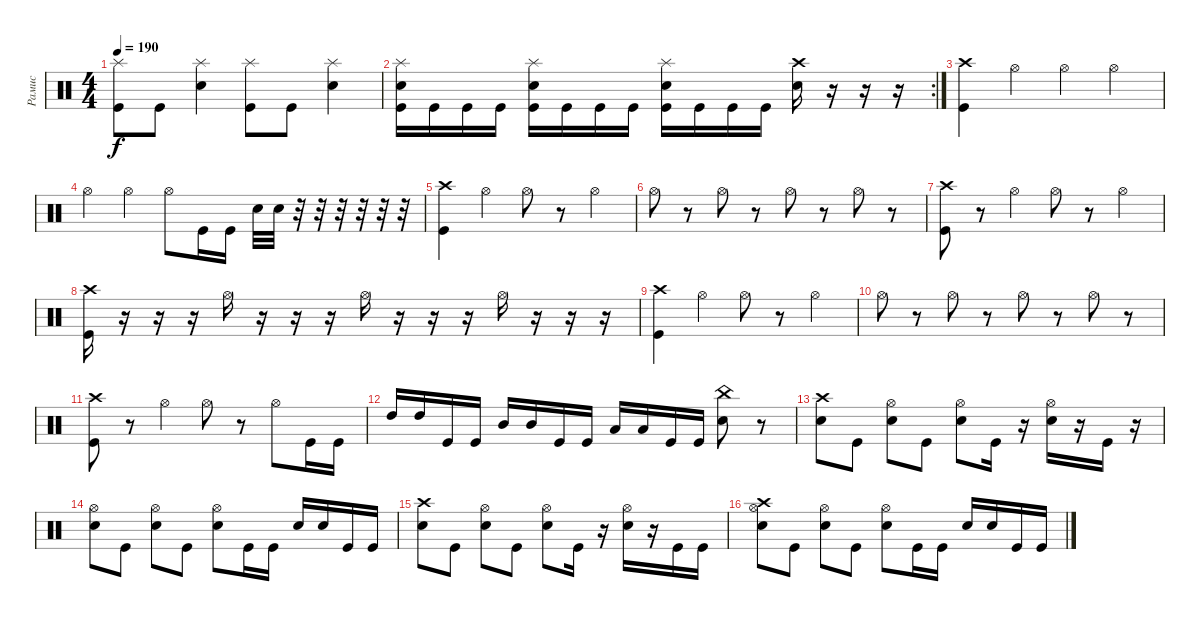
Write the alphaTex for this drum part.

\track ("Рамис" "Рамис") {instrument percussion}
\staff {score}
\articulation defaults
\ts (4 4)
\tempo 190
\clef neutral
\ks c
("Splash (hit)" "Kick (hit)").8{dy f} "Kick (hit)".8 ("Splash (hit)" "Electric Snare (hit)").4 ("Splash (hit)" "Kick (hit)").8 "Kick (hit)".8 ("Splash (hit)" "Electric Snare (hit)").4 |
\rc 2
("Splash (hit)" "Electric Snare (hit)" "Kick (hit)").16 "Kick (hit)".16 "Kick (hit)".16 "Kick (hit)".16 ("Splash (hit)" "Electric Snare (hit)" "Kick (hit)").16 "Kick (hit)".16 "Kick (hit)".16 "Kick (hit)".16 ("Splash (hit)" "Electric Snare (hit)" "Kick (hit)").16 "Kick (hit)".16 "Kick (hit)".16 "Kick (hit)".16 ("Crash high (hit)" "Electric Snare (hit)").16 r.16 r.16 r.16 |
("Crash high (hit)" "Kick (hit)").4 "Hi-Hat (open)".4 "Hi-Hat (open)".4 "Hi-Hat (open)".4 |
"Hi-Hat (open)".4 "Hi-Hat (open)".4 "Hi-Hat (open)".8 "Kick (hit)".16 "Kick (hit)".16 "Electric Snare (hit)".32 "Electric Snare (hit)".32 r.32 r.32 r.32 r.32 r.32 r.32 |
("Crash high (hit)" "Kick (hit)").4 "Hi-Hat (open)".4 "Hi-Hat (open)".8 r.8 "Hi-Hat (open)".4 |
"Hi-Hat (open)".8 r.8 "Hi-Hat (open)".8 r.8 "Hi-Hat (open)".8 r.8 "Hi-Hat (open)".8 r.8 |
("Crash high (hit)" "Kick (hit)").8 r.8 "Hi-Hat (open)".4 "Hi-Hat (open)".8 r.8 "Hi-Hat (open)".4 |
("Crash high (hit)" "Kick (hit)").16 r.16 r.16 r.16 "Hi-Hat (open)".16 r.16 r.16 r.16 "Hi-Hat (open)".16 r.16 r.16 r.16 "Hi-Hat (open)".16 r.16 r.16 r.16 |
("Crash high (hit)" "Kick (hit)").4 "Hi-Hat (open)".4 "Hi-Hat (open)".8 r.8 "Hi-Hat (open)".4 |
"Hi-Hat (open)".8 r.8 "Hi-Hat (open)".8 r.8 "Hi-Hat (open)".8 r.8 "Hi-Hat (open)".8 r.8 |
("Crash high (hit)" "Kick (hit)").8 r.8 "Hi-Hat (open)".4 "Hi-Hat (open)".8 r.8 "Hi-Hat (open)".8 "Kick (hit)".16 "Kick (hit)".16 |
"High Tom (hit)".16 "High Tom (hit)".16 "Kick (hit)".16 "Kick (hit)".16 "Mid Tom (hit)".16 "Mid Tom (hit)".16 "Kick (hit)".16 "Kick (hit)".16 "Low Tom (hit)".16 "Low Tom (hit)".16 "Kick (hit)".16 "Kick (hit)".16 ("China (hit)" "Electric Snare (hit)").8 r.8 |
("Crash high (hit)" "Electric Snare (hit)").8 "Kick (hit)".8 ("Hi-Hat (open)" "Electric Snare (hit)").8 "Kick (hit)".8 ("Hi-Hat (open)" "Electric Snare (hit)").8 "Kick (hit)".16 r.16 ("Hi-Hat (open)" "Electric Snare (hit)").16 r.16 "Kick (hit)".16 r.16 |
("Hi-Hat (open)" "Electric Snare (hit)").8 "Kick (hit)".8 ("Hi-Hat (open)" "Electric Snare (hit)").8 "Kick (hit)".8 ("Hi-Hat (open)" "Electric Snare (hit)").8 "Kick (hit)".16 "Kick (hit)".16 "Electric Snare (hit)".16 "Electric Snare (hit)".16 "Kick (hit)".16 "Kick (hit)".16 |
("Crash high (hit)" "Electric Snare (hit)").8 "Kick (hit)".8 ("Hi-Hat (open)" "Electric Snare (hit)").8 "Kick (hit)".8 ("Hi-Hat (open)" "Electric Snare (hit)").8 "Kick (hit)".16 r.16 ("Hi-Hat (open)" "Electric Snare (hit)").16 r.16 "Kick (hit)".16 "Kick (hit)".16 |
("Crash high (hit)" "Hi-Hat (open)" "Electric Snare (hit)").8 "Kick (hit)".8 ("Hi-Hat (open)" "Electric Snare (hit)").8 "Kick (hit)".8 ("Hi-Hat (open)" "Electric Snare (hit)").8 "Kick (hit)".16 "Kick (hit)".16 "Electric Snare (hit)".16 "Electric Snare (hit)".16 "Kick (hit)".16 "Kick (hit)".16
